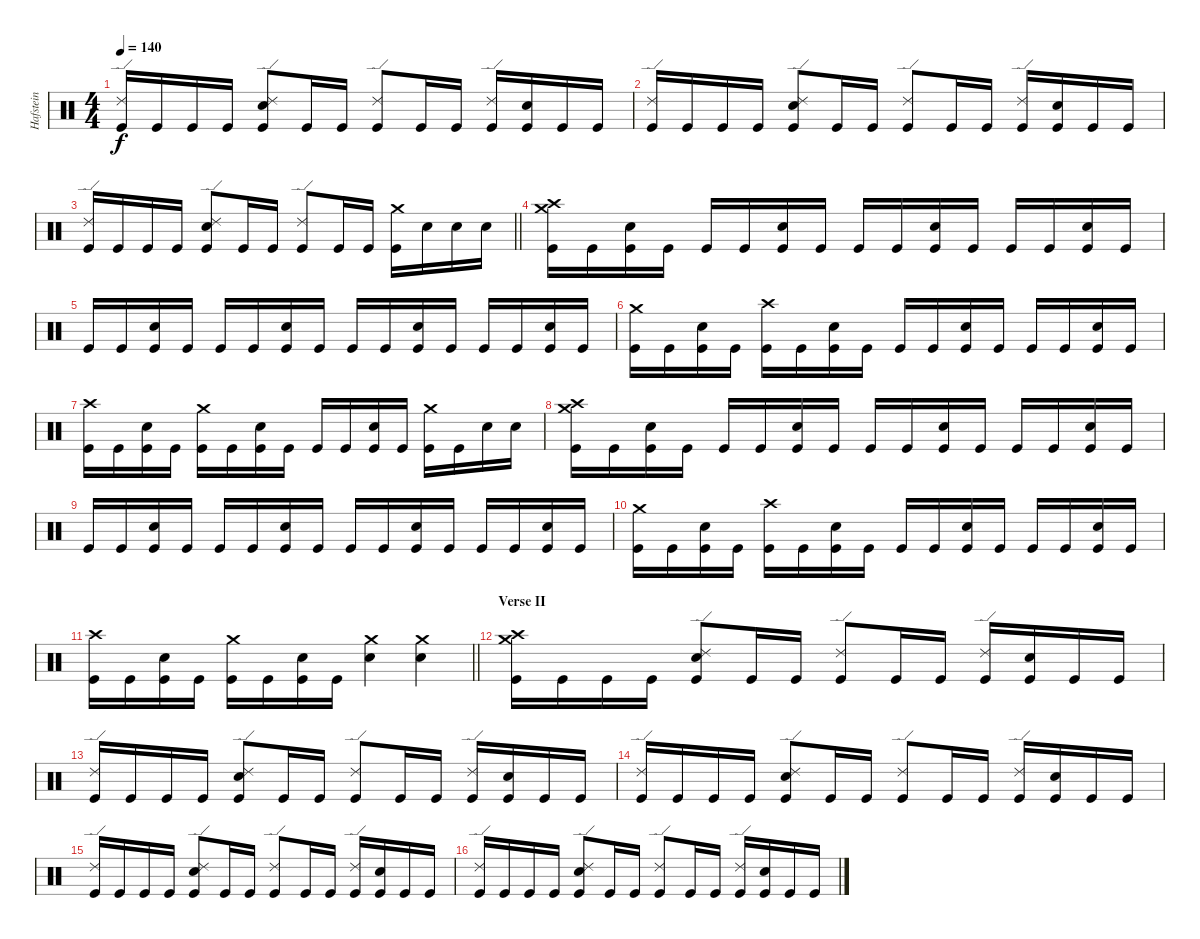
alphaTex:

\track ("Hafstein" "Hafstein") {instrument percussion}
\staff {score}
\articulation defaults
\ts (4 4)
\tempo 140
\clef neutral
\ks c
("Ride (edge) 2" "Kick (hit)").16{dy f} "Kick (hit)".16 "Kick (hit)".16 "Kick (hit)".16 ("Ride (edge) 2" "Electric Snare (hit)" "Kick (hit)").8 "Kick (hit)".16 "Kick (hit)".16 ("Ride (edge) 2" "Kick (hit)").8 "Kick (hit)".16 "Kick (hit)".16 ("Ride (edge) 2" "Kick (hit)").16 ("Electric Snare (hit)" "Kick (hit)").16 "Kick (hit)".16 "Kick (hit)".16 |
("Ride (edge) 2" "Kick (hit)").16 "Kick (hit)".16 "Kick (hit)".16 "Kick (hit)".16 ("Ride (edge) 2" "Electric Snare (hit)" "Kick (hit)").8 "Kick (hit)".16 "Kick (hit)".16 ("Ride (edge) 2" "Kick (hit)").8 "Kick (hit)".16 "Kick (hit)".16 ("Ride (edge) 2" "Kick (hit)").16 ("Electric Snare (hit)" "Kick (hit)").16 "Kick (hit)".16 "Kick (hit)".16 |
\barLineRight lightlight
("Ride (edge) 2" "Kick (hit)").16 "Kick (hit)".16 "Kick (hit)".16 "Kick (hit)".16 ("Ride (edge) 2" "Electric Snare (hit)" "Kick (hit)").8 "Kick (hit)".16 "Kick (hit)".16 ("Ride (edge) 2" "Kick (hit)").8 "Kick (hit)".16 "Kick (hit)".16 ("Crash medium (hit)" "Kick (hit)").16 "Electric Snare (hit)".16 "Electric Snare (hit)".16 "Electric Snare (hit)".16 |
\section ("" "")
("Crash high (hit)" "Crash medium (hit)" "Kick (hit)").16 "Kick (hit)".16 ("Electric Snare (hit)" "Kick (hit)").16 "Kick (hit)".16 "Kick (hit)".16 "Kick (hit)".16 ("Electric Snare (hit)" "Kick (hit)").16 "Kick (hit)".16 "Kick (hit)".16 "Kick (hit)".16 ("Electric Snare (hit)" "Kick (hit)").16 "Kick (hit)".16 "Kick (hit)".16 "Kick (hit)".16 ("Electric Snare (hit)" "Kick (hit)").16 "Kick (hit)".16 |
"Kick (hit)".16 "Kick (hit)".16 ("Electric Snare (hit)" "Kick (hit)").16 "Kick (hit)".16 "Kick (hit)".16 "Kick (hit)".16 ("Electric Snare (hit)" "Kick (hit)").16 "Kick (hit)".16 "Kick (hit)".16 "Kick (hit)".16 ("Electric Snare (hit)" "Kick (hit)").16 "Kick (hit)".16 "Kick (hit)".16 "Kick (hit)".16 ("Electric Snare (hit)" "Kick (hit)").16 "Kick (hit)".16 |
("Crash medium (hit)" "Kick (hit)").16 "Kick (hit)".16 ("Electric Snare (hit)" "Kick (hit)").16 "Kick (hit)".16 ("Crash high (hit)" "Kick (hit)").16 "Kick (hit)".16 ("Electric Snare (hit)" "Kick (hit)").16 "Kick (hit)".16 "Kick (hit)".16 "Kick (hit)".16 ("Electric Snare (hit)" "Kick (hit)").16 "Kick (hit)".16 "Kick (hit)".16 "Kick (hit)".16 ("Electric Snare (hit)" "Kick (hit)").16 "Kick (hit)".16 |
("Crash high (hit)" "Kick (hit)").16 "Kick (hit)".16 ("Electric Snare (hit)" "Kick (hit)").16 "Kick (hit)".16 ("Crash medium (hit)" "Kick (hit)").16 "Kick (hit)".16 ("Electric Snare (hit)" "Kick (hit)").16 "Kick (hit)".16 "Kick (hit)".16 "Kick (hit)".16 ("Electric Snare (hit)" "Kick (hit)").16 "Kick (hit)".16 ("Crash medium (hit)" "Kick (hit)").16 "Kick (hit)".16 "Electric Snare (hit)".16 "Electric Snare (hit)".16 |
("Crash high (hit)" "Crash medium (hit)" "Kick (hit)").16 "Kick (hit)".16 ("Electric Snare (hit)" "Kick (hit)").16 "Kick (hit)".16 "Kick (hit)".16 "Kick (hit)".16 ("Electric Snare (hit)" "Kick (hit)").16 "Kick (hit)".16 "Kick (hit)".16 "Kick (hit)".16 ("Electric Snare (hit)" "Kick (hit)").16 "Kick (hit)".16 "Kick (hit)".16 "Kick (hit)".16 ("Electric Snare (hit)" "Kick (hit)").16 "Kick (hit)".16 |
"Kick (hit)".16 "Kick (hit)".16 ("Electric Snare (hit)" "Kick (hit)").16 "Kick (hit)".16 "Kick (hit)".16 "Kick (hit)".16 ("Electric Snare (hit)" "Kick (hit)").16 "Kick (hit)".16 "Kick (hit)".16 "Kick (hit)".16 ("Electric Snare (hit)" "Kick (hit)").16 "Kick (hit)".16 "Kick (hit)".16 "Kick (hit)".16 ("Electric Snare (hit)" "Kick (hit)").16 "Kick (hit)".16 |
("Crash medium (hit)" "Kick (hit)").16 "Kick (hit)".16 ("Electric Snare (hit)" "Kick (hit)").16 "Kick (hit)".16 ("Crash high (hit)" "Kick (hit)").16 "Kick (hit)".16 ("Electric Snare (hit)" "Kick (hit)").16 "Kick (hit)".16 "Kick (hit)".16 "Kick (hit)".16 ("Electric Snare (hit)" "Kick (hit)").16 "Kick (hit)".16 "Kick (hit)".16 "Kick (hit)".16 ("Electric Snare (hit)" "Kick (hit)").16 "Kick (hit)".16 |
\barLineRight lightlight
("Crash high (hit)" "Kick (hit)").16 "Kick (hit)".16 ("Electric Snare (hit)" "Kick (hit)").16 "Kick (hit)".16 ("Crash medium (hit)" "Kick (hit)").16 "Kick (hit)".16 ("Electric Snare (hit)" "Kick (hit)").16 "Kick (hit)".16 ("Crash medium (hit)" "Electric Snare (hit)").4 ("Crash medium (hit)" "Electric Snare (hit)").4 |
\section ("" "Verse II")
("Crash medium (hit)" "Crash high (hit)" "Kick (hit)").16 "Kick (hit)".16 "Kick (hit)".16 "Kick (hit)".16 ("Ride (edge) 2" "Electric Snare (hit)" "Kick (hit)").8 "Kick (hit)".16 "Kick (hit)".16 ("Ride (edge) 2" "Kick (hit)").8 "Kick (hit)".16 "Kick (hit)".16 ("Ride (edge) 2" "Kick (hit)").16 ("Electric Snare (hit)" "Kick (hit)").16 "Kick (hit)".16 "Kick (hit)".16 |
("Ride (edge) 2" "Kick (hit)").16 "Kick (hit)".16 "Kick (hit)".16 "Kick (hit)".16 ("Ride (edge) 2" "Electric Snare (hit)" "Kick (hit)").8 "Kick (hit)".16 "Kick (hit)".16 ("Ride (edge) 2" "Kick (hit)").8 "Kick (hit)".16 "Kick (hit)".16 ("Ride (edge) 2" "Kick (hit)").16 ("Electric Snare (hit)" "Kick (hit)").16 "Kick (hit)".16 "Kick (hit)".16 |
("Ride (edge) 2" "Kick (hit)").16 "Kick (hit)".16 "Kick (hit)".16 "Kick (hit)".16 ("Ride (edge) 2" "Electric Snare (hit)" "Kick (hit)").8 "Kick (hit)".16 "Kick (hit)".16 ("Ride (edge) 2" "Kick (hit)").8 "Kick (hit)".16 "Kick (hit)".16 ("Ride (edge) 2" "Kick (hit)").16 ("Electric Snare (hit)" "Kick (hit)").16 "Kick (hit)".16 "Kick (hit)".16 |
("Ride (edge) 2" "Kick (hit)").16 "Kick (hit)".16 "Kick (hit)".16 "Kick (hit)".16 ("Ride (edge) 2" "Electric Snare (hit)" "Kick (hit)").8 "Kick (hit)".16 "Kick (hit)".16 ("Ride (edge) 2" "Kick (hit)").8 "Kick (hit)".16 "Kick (hit)".16 ("Ride (edge) 2" "Kick (hit)").16 ("Electric Snare (hit)" "Kick (hit)").16 "Kick (hit)".16 "Kick (hit)".16 |
("Ride (edge) 2" "Kick (hit)").16 "Kick (hit)".16 "Kick (hit)".16 "Kick (hit)".16 ("Ride (edge) 2" "Electric Snare (hit)" "Kick (hit)").8 "Kick (hit)".16 "Kick (hit)".16 ("Ride (edge) 2" "Kick (hit)").8 "Kick (hit)".16 "Kick (hit)".16 ("Ride (edge) 2" "Kick (hit)").16 ("Electric Snare (hit)" "Kick (hit)").16 "Kick (hit)".16 "Kick (hit)".16
